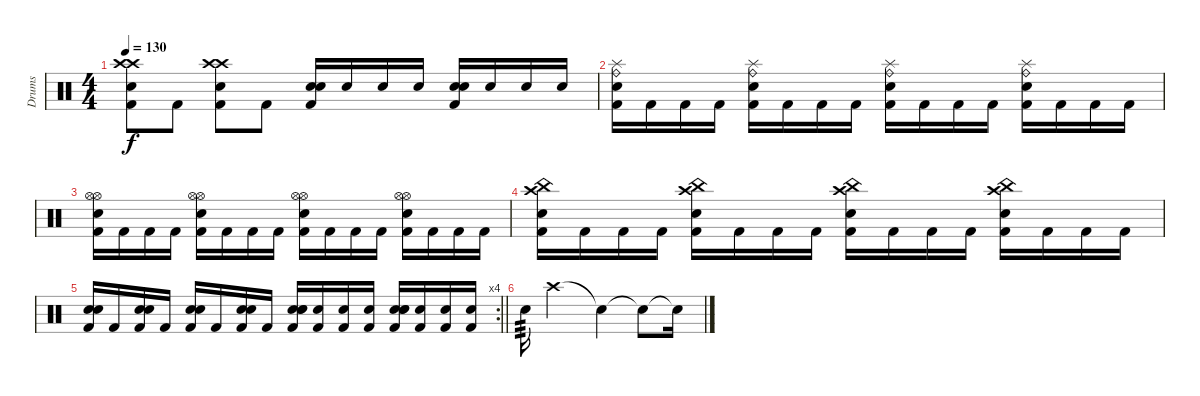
\track ("Drums" "Drums") {instrument percussion}
\staff {score}
\articulation defaults
\ts (4 4)
\tempo 130
\clef neutral
\ks c
("Crash high (hit)" "Crash high (hit)" "Electric Snare (hit)" "Kick (hit) 2").8{dy f} "Kick (hit) 2".8 ("Crash high (hit)" "Crash high (hit)" "Electric Snare (hit)" "Kick (hit) 2").8 "Kick (hit) 2".8 ("Kick (hit) 2" "Electric Snare (hit)" "Electric Snare (hit)").16 "Electric Snare (hit)".16 "Electric Snare (hit)".16 "Electric Snare (hit)".16 ("Kick (hit) 2" "Electric Snare (hit)" "Electric Snare (hit)").16 "Electric Snare (hit)".16 "Electric Snare (hit)".16 "Electric Snare (hit)".16 |
("Splash (hit)" "Ride (bell)" "Electric Snare (hit)" "Kick (hit) 2").16 "Kick (hit) 2".16 "Kick (hit) 2".16 "Kick (hit) 2".16 ("Splash (hit)" "Ride (bell)" "Electric Snare (hit)" "Kick (hit) 2").16 "Kick (hit) 2".16 "Kick (hit) 2".16 "Kick (hit) 2".16 ("Splash (hit)" "Ride (bell)" "Electric Snare (hit)" "Kick (hit) 2").16 "Kick (hit) 2".16 "Kick (hit) 2".16 "Kick (hit) 2".16 ("Splash (hit)" "Ride (bell)" "Electric Snare (hit)" "Kick (hit) 2").16 "Kick (hit) 2".16 "Kick (hit) 2".16 "Kick (hit) 2".16 |
("Hi-Hat (open)" "Hi-Hat (open)" "Electric Snare (hit)" "Kick (hit) 2").16 "Kick (hit) 2".16 "Kick (hit) 2".16 "Kick (hit) 2".16 ("Hi-Hat (open)" "Hi-Hat (open)" "Electric Snare (hit)" "Kick (hit) 2").16 "Kick (hit) 2".16 "Kick (hit) 2".16 "Kick (hit) 2".16 ("Hi-Hat (open)" "Hi-Hat (open)" "Electric Snare (hit)" "Kick (hit) 2").16 "Kick (hit) 2".16 "Kick (hit) 2".16 "Kick (hit) 2".16 ("Hi-Hat (open)" "Hi-Hat (open)" "Electric Snare (hit)" "Kick (hit) 2").16 "Kick (hit) 2".16 "Kick (hit) 2".16 "Kick (hit) 2".16 |
("China (hit)" "Crash high (hit)" "Electric Snare (hit)" "Kick (hit) 2").16 "Kick (hit) 2".16 "Kick (hit) 2".16 "Kick (hit) 2".16 ("China (hit)" "Crash high (hit)" "Electric Snare (hit)" "Kick (hit) 2").16 "Kick (hit) 2".16 "Kick (hit) 2".16 "Kick (hit) 2".16 ("China (hit)" "Crash high (hit)" "Electric Snare (hit)" "Kick (hit) 2").16 "Kick (hit) 2".16 "Kick (hit) 2".16 "Kick (hit) 2".16 ("China (hit)" "Crash high (hit)" "Electric Snare (hit)" "Kick (hit) 2").16 "Kick (hit) 2".16 "Kick (hit) 2".16 "Kick (hit) 2".16 |
\rc 4
\barLineRight lightlight
("Snare (hit) 2" "Electric Snare (hit)" "Kick (hit) 2").16 "Kick (hit) 2".16 ("Snare (hit) 2" "Electric Snare (hit)" "Kick (hit) 2").16 "Kick (hit) 2".16 ("Snare (hit) 2" "Electric Snare (hit)" "Kick (hit) 2").16 "Kick (hit) 2".16 ("Snare (hit) 2" "Electric Snare (hit)" "Kick (hit) 2").16 "Kick (hit) 2".16 ("Snare (hit) 2" "Snare (hit) 2" "Electric Snare (hit)" "Kick (hit) 2").16 ("Electric Snare (hit)" "Kick (hit) 2").16 ("Electric Snare (hit)" "Kick (hit) 2").16 ("Electric Snare (hit)" "Kick (hit) 2").16 ("Snare (hit) 2" "Snare (hit) 2" "Electric Snare (hit)" "Kick (hit) 2").16 ("Electric Snare (hit)" "Kick (hit) 2").16 ("Electric Snare (hit)" "Kick (hit) 2").16 ("Electric Snare (hit)" "Kick (hit) 2").16 |
"Electric Snare (hit)".16{tp 3} "Crash high (hit)".2 "Snare (hit)"{t}.4 "Snare (hit)"{t}.8 "Snare (hit)"{t}.16
